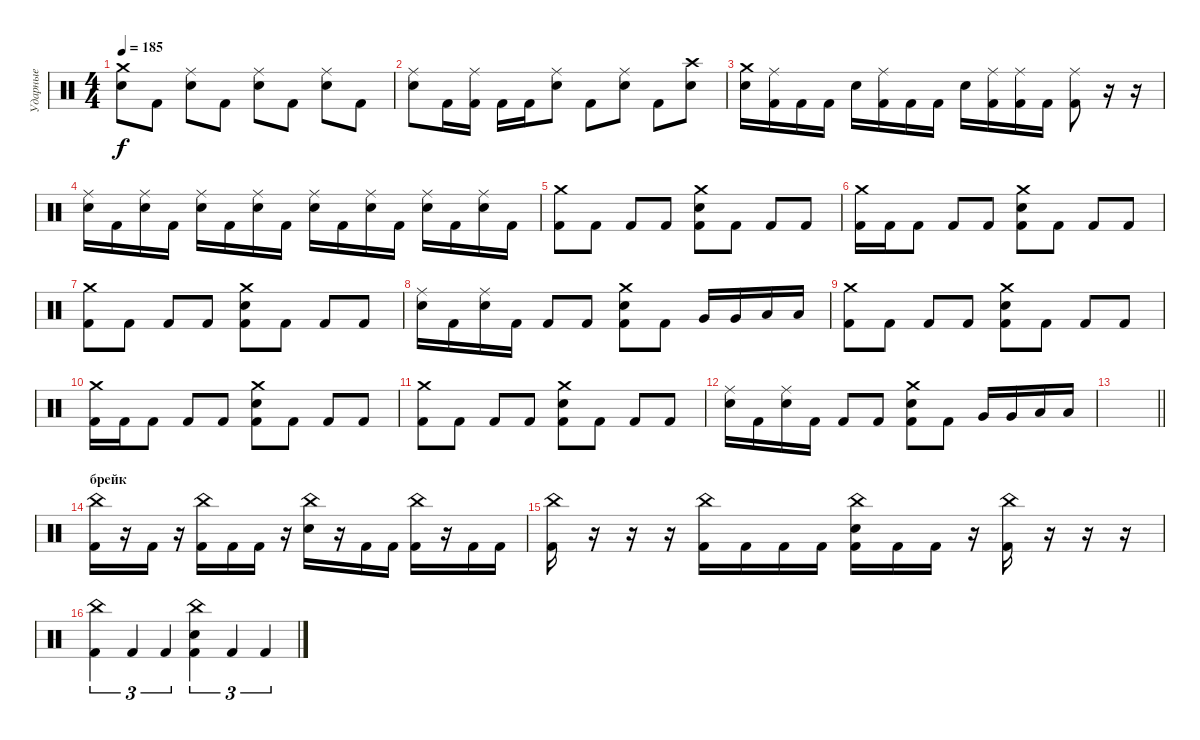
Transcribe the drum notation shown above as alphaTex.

\track ("Ударные" "Ударные") {instrument percussion}
\staff {score}
\articulation defaults
\ts (4 4)
\tempo 185
\clef neutral
\ks c
("Crash medium (hit)" "Electric Snare (hit)").8{dy f} "Kick (hit) 2".8 ("Ride (middle)" "Electric Snare (hit)").8 "Kick (hit) 2".8 ("Ride (middle)" "Electric Snare (hit)").8 "Kick (hit) 2".8 ("Ride (middle)" "Electric Snare (hit)").8 "Kick (hit) 2".8 |
("Ride (middle)" "Electric Snare (hit)").8 "Kick (hit) 2".16 ("Ride (middle)" "Kick (hit) 2").16 "Kick (hit) 2".16 "Kick (hit) 2".16 ("Ride (middle)" "Electric Snare (hit)").8 "Kick (hit) 2".8 ("Ride (middle)" "Electric Snare (hit)").8 "Kick (hit) 2".8 ("Crash high (hit)" "Electric Snare (hit)").8 |
("Crash medium (hit)" "Electric Snare (hit)").16 ("Ride (middle)" "Kick (hit) 2").16 "Kick (hit) 2".16 "Kick (hit) 2".16 "Electric Snare (hit)".16 ("Ride (middle)" "Kick (hit) 2").16 "Kick (hit) 2".16 "Kick (hit) 2".16 "Electric Snare (hit)".16 ("Ride (middle)" "Kick (hit) 2").16 ("Ride (middle)" "Kick (hit) 2").16 "Kick (hit) 2".16 ("Ride (middle)" "Kick (hit) 2").8 r.16 r.16 |
("Ride (middle)" "Electric Snare (hit)").16 "Kick (hit) 2".16 ("Ride (middle)" "Electric Snare (hit)").16 "Kick (hit) 2".16 ("Ride (middle)" "Electric Snare (hit)").16 "Kick (hit) 2".16 ("Ride (middle)" "Electric Snare (hit)").16 "Kick (hit) 2".16 ("Ride (middle)" "Electric Snare (hit)").16 "Kick (hit) 2".16 ("Ride (middle)" "Electric Snare (hit)").16 "Kick (hit) 2".16 ("Ride (middle)" "Electric Snare (hit)").16 "Kick (hit) 2".16 ("Ride (middle)" "Electric Snare (hit)").16 "Kick (hit) 2".16 |
("Crash medium (hit)" "Kick (hit) 2").8 "Kick (hit) 2".8 "Kick (hit) 2".8 "Kick (hit) 2".8 ("Crash medium (hit)" "Electric Snare (hit)" "Kick (hit) 2").8 "Kick (hit) 2".8 "Kick (hit) 2".8 "Kick (hit) 2".8 |
("Crash medium (hit)" "Kick (hit) 2").16 "Kick (hit) 2".16 "Kick (hit) 2".8 "Kick (hit) 2".8 "Kick (hit) 2".8 ("Crash medium (hit)" "Electric Snare (hit)" "Kick (hit) 2").8 "Kick (hit) 2".8 "Kick (hit) 2".8 "Kick (hit) 2".8 |
("Crash medium (hit)" "Kick (hit) 2").8 "Kick (hit) 2".8 "Kick (hit) 2".8 "Kick (hit) 2".8 ("Crash medium (hit)" "Electric Snare (hit)" "Kick (hit) 2").8 "Kick (hit) 2".8 "Kick (hit) 2".8 "Kick (hit) 2".8 |
("Ride (middle)" "Electric Snare (hit)").16 "Kick (hit) 2".16 ("Ride (middle)" "Electric Snare (hit)").16 "Kick (hit) 2".16 "Kick (hit) 2".8 "Kick (hit) 2".8 ("Crash medium (hit)" "Electric Snare (hit)" "Kick (hit) 2").8 "Kick (hit) 2".8 "Very Low Tom (hit)".16 "Very Low Tom (hit)".16 "Low Floor Tom (hit)".16 "Low Floor Tom (hit)".16 |
("Crash medium (hit)" "Kick (hit) 2").8 "Kick (hit) 2".8 "Kick (hit) 2".8 "Kick (hit) 2".8 ("Crash medium (hit)" "Electric Snare (hit)" "Kick (hit) 2").8 "Kick (hit) 2".8 "Kick (hit) 2".8 "Kick (hit) 2".8 |
("Crash medium (hit)" "Kick (hit) 2").16 "Kick (hit) 2".16 "Kick (hit) 2".8 "Kick (hit) 2".8 "Kick (hit) 2".8 ("Crash medium (hit)" "Electric Snare (hit)" "Kick (hit) 2").8 "Kick (hit) 2".8 "Kick (hit) 2".8 "Kick (hit) 2".8 |
("Crash medium (hit)" "Kick (hit) 2").8 "Kick (hit) 2".8 "Kick (hit) 2".8 "Kick (hit) 2".8 ("Crash medium (hit)" "Electric Snare (hit)" "Kick (hit) 2").8 "Kick (hit) 2".8 "Kick (hit) 2".8 "Kick (hit) 2".8 |
("Ride (middle)" "Electric Snare (hit)").16 "Kick (hit) 2".16 ("Ride (middle)" "Electric Snare (hit)").16 "Kick (hit) 2".16 "Kick (hit) 2".8 "Kick (hit) 2".8 ("Crash medium (hit)" "Electric Snare (hit)" "Kick (hit) 2").8 "Kick (hit) 2".8 "Very Low Tom (hit)".16 "Very Low Tom (hit)".16 "Low Floor Tom (hit)".16 "Low Floor Tom (hit)".16 |
\barLineRight lightlight
|
\section ("" "брейк")
("China (hit)" "Kick (hit) 2").16 r.16 "Kick (hit) 2".16 r.16 ("China (hit)" "Kick (hit) 2").16 "Kick (hit) 2".16 "Kick (hit) 2".16 r.16 ("China (hit)" "Electric Snare (hit)").16 r.16 "Kick (hit) 2".16 "Kick (hit) 2".16 ("China (hit)" "Kick (hit) 2").16 r.16 "Kick (hit) 2".16 "Kick (hit) 2".16 |
("China (hit)" "Kick (hit) 2").16 r.16 r.16 r.16 ("China (hit)" "Kick (hit) 2").16 "Kick (hit) 2".16 "Kick (hit) 2".16 "Kick (hit) 2".16 ("China (hit)" "Electric Snare (hit)" "Kick (hit) 2").16 "Kick (hit) 2".16 "Kick (hit) 2".16 r.16 ("China (hit)" "Kick (hit) 2").16 r.16 r.16 r.16 |
("China (hit)" "Kick (hit) 2").4{tu (3 2)} "Kick (hit) 2".4{tu (3 2)} "Kick (hit) 2".4{tu (3 2)} ("China (hit)" "Electric Snare (hit)" "Kick (hit) 2").4{tu (3 2)} "Kick (hit) 2".4{tu (3 2)} "Kick (hit) 2".4{tu (3 2)}
